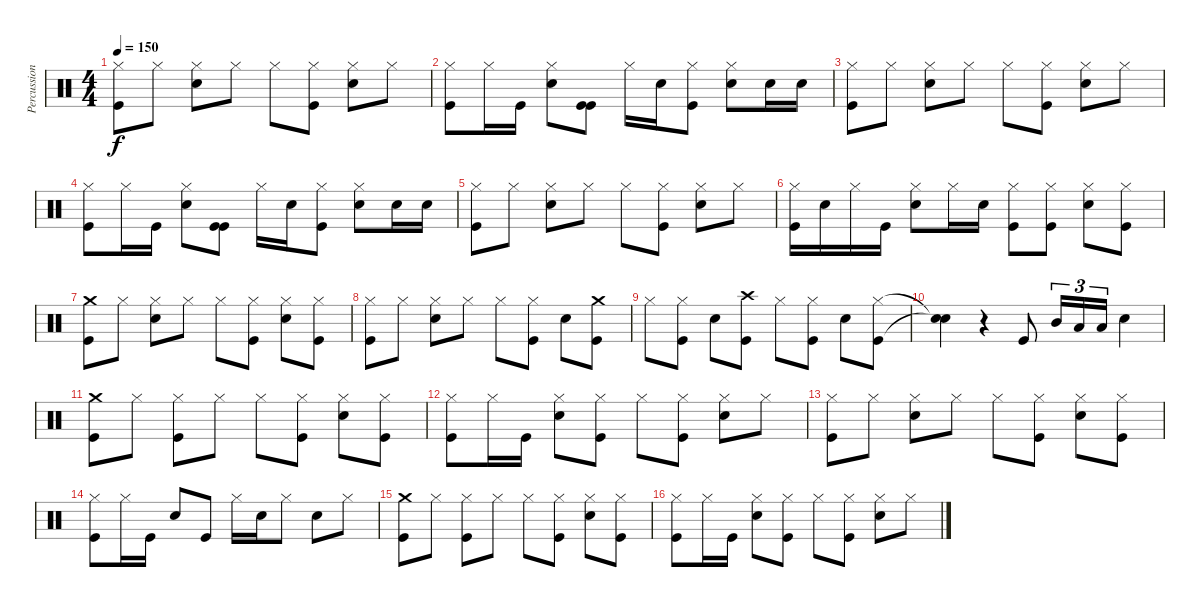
\track ("Percussion" "Percussion") {instrument percussion}
\staff {score}
\articulation defaults
\ts (4 4)
\tempo 150
\clef neutral
\ks c
("Hi-Hat (closed)" "Kick (hit)").8{dy f} "Hi-Hat (closed)".8 ("Hi-Hat (closed)" "Electric Snare (hit)").8 "Hi-Hat (closed)".8 "Hi-Hat (closed)".8 ("Hi-Hat (closed)" "Kick (hit)").8 ("Hi-Hat (closed)" "Electric Snare (hit)").8 "Hi-Hat (closed)".8 |
("Kick (hit)" "Hi-Hat (closed)").8 "Hi-Hat (closed)".16 "Kick (hit)".16 ("Electric Snare (hit)" "Hi-Hat (closed)").8 ("Kick (hit)" "Kick (hit)").8 "Hi-Hat (closed)".16 "Electric Snare (hit)".16 ("Kick (hit)" "Hi-Hat (closed)").8 ("Hi-Hat (closed)" "Electric Snare (hit)").8 "Electric Snare (hit)".16 "Electric Snare (hit)".16 |
("Hi-Hat (closed)" "Kick (hit)").8 "Hi-Hat (closed)".8 ("Hi-Hat (closed)" "Electric Snare (hit)").8 "Hi-Hat (closed)".8 "Hi-Hat (closed)".8 ("Hi-Hat (closed)" "Kick (hit)").8 ("Hi-Hat (closed)" "Electric Snare (hit)").8 "Hi-Hat (closed)".8 |
("Kick (hit)" "Hi-Hat (closed)").8 "Hi-Hat (closed)".16 "Kick (hit)".16 ("Electric Snare (hit)" "Hi-Hat (closed)").8 ("Kick (hit)" "Kick (hit)").8 "Hi-Hat (closed)".16 "Electric Snare (hit)".16 ("Kick (hit)" "Hi-Hat (closed)").8 ("Hi-Hat (closed)" "Electric Snare (hit)").8 "Electric Snare (hit)".16 "Electric Snare (hit)".16 |
("Hi-Hat (closed)" "Kick (hit)").8 "Hi-Hat (closed)".8 ("Hi-Hat (closed)" "Electric Snare (hit)").8 "Hi-Hat (closed)".8 "Hi-Hat (closed)".8 ("Hi-Hat (closed)" "Kick (hit)").8 ("Hi-Hat (closed)" "Electric Snare (hit)").8 "Hi-Hat (closed)".8 |
("Hi-Hat (closed)" "Kick (hit)").16 "Electric Snare (hit)".16 "Hi-Hat (closed)".16 "Kick (hit)".16 ("Electric Snare (hit)" "Hi-Hat (closed)").8 "Hi-Hat (closed)".16 "Electric Snare (hit)".16 ("Kick (hit)" "Hi-Hat (closed)").8 ("Kick (hit)" "Hi-Hat (closed)").8 ("Electric Snare (hit)" "Hi-Hat (closed)").8 ("Kick (hit)" "Hi-Hat (closed)").8 |
("Crash medium (hit)" "Kick (hit)").8 "Hi-Hat (closed)".8 ("Hi-Hat (closed)" "Electric Snare (hit)").8 "Hi-Hat (closed)".8 "Hi-Hat (closed)".8 ("Hi-Hat (closed)" "Kick (hit)").8 ("Hi-Hat (closed)" "Electric Snare (hit)").8 ("Hi-Hat (closed)" "Kick (hit)").8 |
("Hi-Hat (closed)" "Kick (hit)").8 "Hi-Hat (closed)".8 ("Hi-Hat (closed)" "Electric Snare (hit)").8 "Hi-Hat (closed)".8 "Hi-Hat (closed)".8 ("Hi-Hat (closed)" "Kick (hit)").8 "Electric Snare (hit)".8 ("Kick (hit)" "Crash medium (hit)").8 |
"Hi-Hat (closed)".8 ("Hi-Hat (closed)" "Kick (hit)").8 "Electric Snare (hit)".8 ("Crash high (hit)" "Kick (hit)").8 "Hi-Hat (closed)".8 ("Kick (hit)" "Hi-Hat (closed)").8 "Electric Snare (hit)".8 ("Kick (hit)" "Hi-Hat (closed)").8 |
("Snare (hit)"{t} "Snare (hit)"{t}).4 r.4 "Kick (hit)".8 "Mid Tom (hit)".16{tu (3 2)} "Low Tom (hit)".16{tu (3 2)} "Low Floor Tom (hit)".16{tu (3 2)} "Electric Snare (hit)".4 |
("Crash medium (hit)" "Kick (hit)").8 "Hi-Hat (closed)".8 ("Hi-Hat (closed)" "Kick (hit)").8 "Hi-Hat (closed)".8 "Hi-Hat (closed)".8 ("Hi-Hat (closed)" "Kick (hit)").8 ("Hi-Hat (closed)" "Electric Snare (hit)").8 ("Hi-Hat (closed)" "Kick (hit)").8 |
("Kick (hit)" "Hi-Hat (closed)").8 "Hi-Hat (closed)".16 "Kick (hit)".16 ("Electric Snare (hit)" "Hi-Hat (closed)").8 ("Kick (hit)" "Hi-Hat (closed)").8 "Hi-Hat (closed)".8 ("Hi-Hat (closed)" "Kick (hit)").8 ("Electric Snare (hit)" "Hi-Hat (closed)").8 "Hi-Hat (closed)".8 |
("Kick (hit)" "Hi-Hat (closed)").8 "Hi-Hat (closed)".8 ("Electric Snare (hit)" "Hi-Hat (closed)").8 "Hi-Hat (closed)".8 "Hi-Hat (closed)".8 ("Hi-Hat (closed)" "Kick (hit)").8 ("Hi-Hat (closed)" "Electric Snare (hit)").8 ("Kick (hit)" "Hi-Hat (closed)").8 |
("Hi-Hat (closed)" "Kick (hit)").8 "Hi-Hat (closed)".16 "Kick (hit)".16 "Electric Snare (hit)".8 "Kick (hit)".8 "Hi-Hat (closed)".16 "Electric Snare (hit)".16 "Hi-Hat (closed)".8 "Electric Snare (hit)".8 "Hi-Hat (closed)".8 |
("Crash medium (hit)" "Kick (hit)").8 "Hi-Hat (closed)".8 ("Hi-Hat (closed)" "Kick (hit)").8 "Hi-Hat (closed)".8 "Hi-Hat (closed)".8 ("Hi-Hat (closed)" "Kick (hit)").8 ("Hi-Hat (closed)" "Electric Snare (hit)").8 ("Hi-Hat (closed)" "Kick (hit)").8 |
("Kick (hit)" "Hi-Hat (closed)").8 "Hi-Hat (closed)".16 "Kick (hit)".16 ("Electric Snare (hit)" "Hi-Hat (closed)").8 ("Kick (hit)" "Hi-Hat (closed)").8 "Hi-Hat (closed)".8 ("Hi-Hat (closed)" "Kick (hit)").8 ("Electric Snare (hit)" "Hi-Hat (closed)").8 "Hi-Hat (closed)".8
